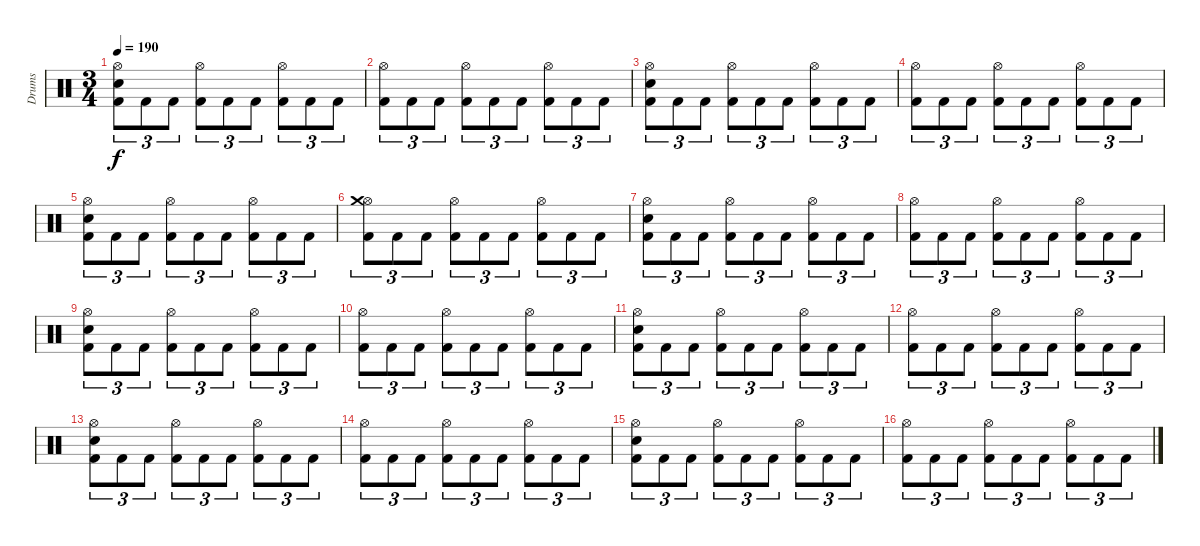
\track ("Drums" "Drums") {instrument percussion}
\staff {score}
\articulation defaults
\ts (3 4)
\tempo 190
\clef neutral
\ks c
("Kick (hit) 2" "Electric Snare (hit)" "Hi-Hat (open)").8{tu (3 2) dy f} "Kick (hit) 2".8{tu (3 2)} "Kick (hit) 2".8{tu (3 2)} ("Kick (hit) 2" "Hi-Hat (open)").8{tu (3 2)} "Kick (hit) 2".8{tu (3 2)} "Kick (hit) 2".8{tu (3 2)} ("Kick (hit) 2" "Hi-Hat (open)").8{tu (3 2)} "Kick (hit) 2".8{tu (3 2)} "Kick (hit) 2".8{tu (3 2)} |
("Kick (hit) 2" "Hi-Hat (open)").8{tu (3 2)} "Kick (hit) 2".8{tu (3 2)} "Kick (hit) 2".8{tu (3 2)} ("Kick (hit) 2" "Hi-Hat (open)").8{tu (3 2)} "Kick (hit) 2".8{tu (3 2)} "Kick (hit) 2".8{tu (3 2)} ("Kick (hit) 2" "Hi-Hat (open)").8{tu (3 2)} "Kick (hit) 2".8{tu (3 2)} "Kick (hit) 2".8{tu (3 2)} |
("Kick (hit) 2" "Electric Snare (hit)" "Hi-Hat (open)").8{tu (3 2)} "Kick (hit) 2".8{tu (3 2)} "Kick (hit) 2".8{tu (3 2)} ("Kick (hit) 2" "Hi-Hat (open)").8{tu (3 2)} "Kick (hit) 2".8{tu (3 2)} "Kick (hit) 2".8{tu (3 2)} ("Kick (hit) 2" "Hi-Hat (open)").8{tu (3 2)} "Kick (hit) 2".8{tu (3 2)} "Kick (hit) 2".8{tu (3 2)} |
("Kick (hit) 2" "Hi-Hat (open)").8{tu (3 2)} "Kick (hit) 2".8{tu (3 2)} "Kick (hit) 2".8{tu (3 2)} ("Kick (hit) 2" "Hi-Hat (open)").8{tu (3 2)} "Kick (hit) 2".8{tu (3 2)} "Kick (hit) 2".8{tu (3 2)} ("Kick (hit) 2" "Hi-Hat (open)").8{tu (3 2)} "Kick (hit) 2".8{tu (3 2)} "Kick (hit) 2".8{tu (3 2)} |
("Kick (hit) 2" "Electric Snare (hit)" "Hi-Hat (open)").8{tu (3 2)} "Kick (hit) 2".8{tu (3 2)} "Kick (hit) 2".8{tu (3 2)} ("Kick (hit) 2" "Hi-Hat (open)").8{tu (3 2)} "Kick (hit) 2".8{tu (3 2)} "Kick (hit) 2".8{tu (3 2)} ("Kick (hit) 2" "Hi-Hat (open)").8{tu (3 2)} "Kick (hit) 2".8{tu (3 2)} "Kick (hit) 2".8{tu (3 2)} |
("Kick (hit) 2" "Hi-Hat (open)" "Crash medium (hit)").8{tu (3 2)} "Kick (hit) 2".8{tu (3 2)} "Kick (hit) 2".8{tu (3 2)} ("Kick (hit) 2" "Hi-Hat (open)").8{tu (3 2)} "Kick (hit) 2".8{tu (3 2)} "Kick (hit) 2".8{tu (3 2)} ("Kick (hit) 2" "Hi-Hat (open)").8{tu (3 2)} "Kick (hit) 2".8{tu (3 2)} "Kick (hit) 2".8{tu (3 2)} |
("Kick (hit) 2" "Electric Snare (hit)" "Hi-Hat (open)").8{tu (3 2)} "Kick (hit) 2".8{tu (3 2)} "Kick (hit) 2".8{tu (3 2)} ("Kick (hit) 2" "Hi-Hat (open)").8{tu (3 2)} "Kick (hit) 2".8{tu (3 2)} "Kick (hit) 2".8{tu (3 2)} ("Kick (hit) 2" "Hi-Hat (open)").8{tu (3 2)} "Kick (hit) 2".8{tu (3 2)} "Kick (hit) 2".8{tu (3 2)} |
("Kick (hit) 2" "Hi-Hat (open)").8{tu (3 2)} "Kick (hit) 2".8{tu (3 2)} "Kick (hit) 2".8{tu (3 2)} ("Kick (hit) 2" "Hi-Hat (open)").8{tu (3 2)} "Kick (hit) 2".8{tu (3 2)} "Kick (hit) 2".8{tu (3 2)} ("Kick (hit) 2" "Hi-Hat (open)").8{tu (3 2)} "Kick (hit) 2".8{tu (3 2)} "Kick (hit) 2".8{tu (3 2)} |
("Kick (hit) 2" "Electric Snare (hit)" "Hi-Hat (open)").8{tu (3 2)} "Kick (hit) 2".8{tu (3 2)} "Kick (hit) 2".8{tu (3 2)} ("Kick (hit) 2" "Hi-Hat (open)").8{tu (3 2)} "Kick (hit) 2".8{tu (3 2)} "Kick (hit) 2".8{tu (3 2)} ("Kick (hit) 2" "Hi-Hat (open)").8{tu (3 2)} "Kick (hit) 2".8{tu (3 2)} "Kick (hit) 2".8{tu (3 2)} |
("Kick (hit) 2" "Hi-Hat (open)").8{tu (3 2)} "Kick (hit) 2".8{tu (3 2)} "Kick (hit) 2".8{tu (3 2)} ("Kick (hit) 2" "Hi-Hat (open)").8{tu (3 2)} "Kick (hit) 2".8{tu (3 2)} "Kick (hit) 2".8{tu (3 2)} ("Kick (hit) 2" "Hi-Hat (open)").8{tu (3 2)} "Kick (hit) 2".8{tu (3 2)} "Kick (hit) 2".8{tu (3 2)} |
("Kick (hit) 2" "Electric Snare (hit)" "Hi-Hat (open)").8{tu (3 2)} "Kick (hit) 2".8{tu (3 2)} "Kick (hit) 2".8{tu (3 2)} ("Kick (hit) 2" "Hi-Hat (open)").8{tu (3 2)} "Kick (hit) 2".8{tu (3 2)} "Kick (hit) 2".8{tu (3 2)} ("Kick (hit) 2" "Hi-Hat (open)").8{tu (3 2)} "Kick (hit) 2".8{tu (3 2)} "Kick (hit) 2".8{tu (3 2)} |
("Kick (hit) 2" "Hi-Hat (open)").8{tu (3 2)} "Kick (hit) 2".8{tu (3 2)} "Kick (hit) 2".8{tu (3 2)} ("Kick (hit) 2" "Hi-Hat (open)").8{tu (3 2)} "Kick (hit) 2".8{tu (3 2)} "Kick (hit) 2".8{tu (3 2)} ("Kick (hit) 2" "Hi-Hat (open)").8{tu (3 2)} "Kick (hit) 2".8{tu (3 2)} "Kick (hit) 2".8{tu (3 2)} |
("Kick (hit) 2" "Electric Snare (hit)" "Hi-Hat (open)").8{tu (3 2)} "Kick (hit) 2".8{tu (3 2)} "Kick (hit) 2".8{tu (3 2)} ("Kick (hit) 2" "Hi-Hat (open)").8{tu (3 2)} "Kick (hit) 2".8{tu (3 2)} "Kick (hit) 2".8{tu (3 2)} ("Kick (hit) 2" "Hi-Hat (open)").8{tu (3 2)} "Kick (hit) 2".8{tu (3 2)} "Kick (hit) 2".8{tu (3 2)} |
("Kick (hit) 2" "Hi-Hat (open)").8{tu (3 2)} "Kick (hit) 2".8{tu (3 2)} "Kick (hit) 2".8{tu (3 2)} ("Kick (hit) 2" "Hi-Hat (open)").8{tu (3 2)} "Kick (hit) 2".8{tu (3 2)} "Kick (hit) 2".8{tu (3 2)} ("Kick (hit) 2" "Hi-Hat (open)").8{tu (3 2)} "Kick (hit) 2".8{tu (3 2)} "Kick (hit) 2".8{tu (3 2)} |
("Kick (hit) 2" "Electric Snare (hit)" "Hi-Hat (open)").8{tu (3 2)} "Kick (hit) 2".8{tu (3 2)} "Kick (hit) 2".8{tu (3 2)} ("Kick (hit) 2" "Hi-Hat (open)").8{tu (3 2)} "Kick (hit) 2".8{tu (3 2)} "Kick (hit) 2".8{tu (3 2)} ("Kick (hit) 2" "Hi-Hat (open)").8{tu (3 2)} "Kick (hit) 2".8{tu (3 2)} "Kick (hit) 2".8{tu (3 2)} |
("Kick (hit) 2" "Hi-Hat (open)").8{tu (3 2)} "Kick (hit) 2".8{tu (3 2)} "Kick (hit) 2".8{tu (3 2)} ("Kick (hit) 2" "Hi-Hat (open)").8{tu (3 2)} "Kick (hit) 2".8{tu (3 2)} "Kick (hit) 2".8{tu (3 2)} ("Kick (hit) 2" "Hi-Hat (open)").8{tu (3 2)} "Kick (hit) 2".8{tu (3 2)} "Kick (hit) 2".8{tu (3 2)}
